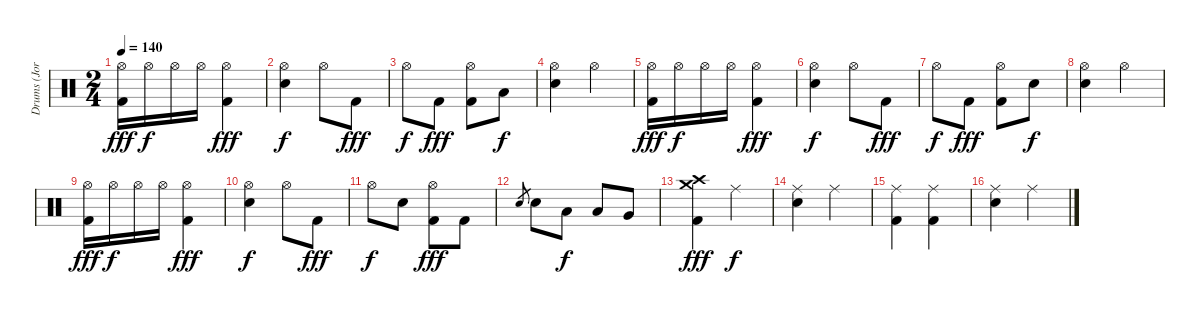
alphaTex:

\track ("Drums (Jordan Hastings)" "Drums (Jor") {instrument percussion}
\staff {score}
\articulation defaults
\ts (2 4)
\tempo 140
\clef neutral
\ks c
("Hi-Hat (open)" "Kick (hit) 2").16{dy fff} "Hi-Hat (open)".16{dy f} "Hi-Hat (open)".16 "Hi-Hat (open)".16 ("Hi-Hat (open)" "Kick (hit) 2").4{dy fff} |
("Hi-Hat (open)" "Electric Snare (hit)").4{dy f} "Hi-Hat (open)".8 "Kick (hit) 2".8{dy fff} |
"Hi-Hat (open)".8{dy f} "Kick (hit) 2".8{dy fff} ("Hi-Hat (open)" "Kick (hit) 2").8 "Low Tom (hit)".8{dy f} |
("Hi-Hat (open)" "Electric Snare (hit)").4 "Hi-Hat (open)".4 |
("Hi-Hat (open)" "Kick (hit) 2").16{dy fff} "Hi-Hat (open)".16{dy f} "Hi-Hat (open)".16 "Hi-Hat (open)".16 ("Hi-Hat (open)" "Kick (hit) 2").4{dy fff} |
("Hi-Hat (open)" "Electric Snare (hit)").4{dy f} "Hi-Hat (open)".8 "Kick (hit) 2".8{dy fff} |
"Hi-Hat (open)".8{dy f} "Kick (hit) 2".8{dy fff} ("Hi-Hat (open)" "Kick (hit) 2").8 "Electric Snare (hit)".8{dy f} |
("Hi-Hat (open)" "Electric Snare (hit)").4 "Hi-Hat (open)".4 |
("Hi-Hat (open)" "Kick (hit) 2").16{dy fff} "Hi-Hat (open)".16{dy f} "Hi-Hat (open)".16 "Hi-Hat (open)".16 ("Hi-Hat (open)" "Kick (hit) 2").4{dy fff} |
("Hi-Hat (open)" "Electric Snare (hit)").4{dy f} "Hi-Hat (open)".8 "Kick (hit) 2".8{dy fff} |
"Hi-Hat (open)".8{dy f} "Electric Snare (hit)".8 ("Hi-Hat (open)" "Kick (hit) 2").8{dy fff} "Kick (hit) 2".8 |
"Electric Snare (hit)".8{gr} "Electric Snare (hit)".8 "Low Tom (hit)".8{dy f} "Low Tom (hit)".8 "Very Low Tom (hit)".8 |
("Crash medium (hit)" "Crash high (hit)" "Kick (hit) 2").4{dy fff} "Ride (middle)".4{dy f} |
("Ride (middle)" "Electric Snare (hit)").4 "Ride (middle)".4 |
("Ride (middle)" "Kick (hit) 2").4 ("Ride (middle)" "Kick (hit) 2").4 |
("Ride (middle)" "Electric Snare (hit)").4 "Ride (middle)".4
